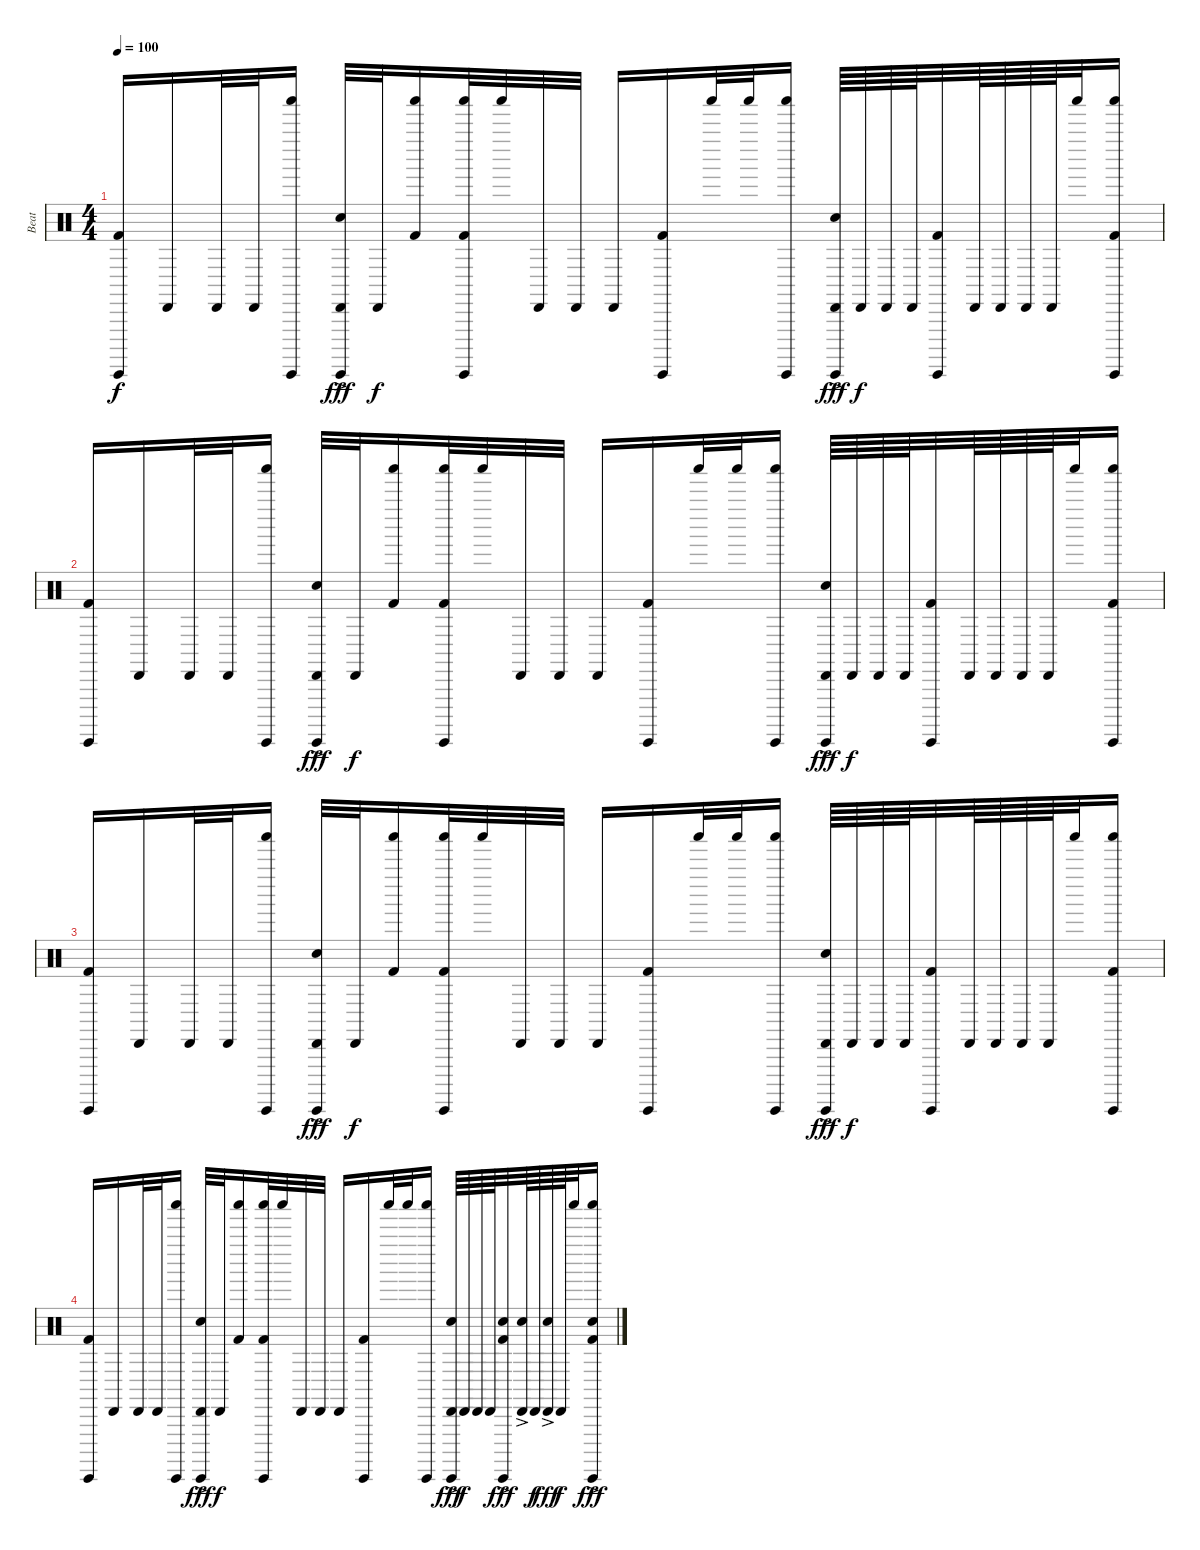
\track ("Beat" "Beat") {instrument percussion}
\staff {score}
\articulation defaults
\ts (4 4)
\tempo 100
\clef neutral
\ks c
("Guiro (hit)" "Kick (hit) 2").16{dy f} "Cabasa (hit)".16 "Cabasa (hit)".32 "Cabasa (hit)".32 ("Guiro (hit)" "Shaker (hit)").16 ("Guiro (hit)" "Cabasa (hit)" "Snare (hit) 2"{ac}).32{dy fff} "Cabasa (hit)".32{dy f} ("Shaker (hit)" "Kick (hit) 2").16 ("Guiro (hit)" "Shaker (hit)" "Kick (hit) 2").32 "Shaker (hit)".32 "Cabasa (hit)".32 "Cabasa (hit)".32 "Cabasa (hit)".16 ("Guiro (hit)" "Kick (hit) 2").16 "Shaker (hit)".32 "Shaker (hit)".32 ("Guiro (hit)" "Shaker (hit)").16 ("Guiro (hit)" "Cabasa (hit)" "Snare (hit) 2"{ac}).64{dy fff} "Cabasa (hit)".64{dy f} "Cabasa (hit)".64 "Cabasa (hit)".64 ("Guiro (hit)" "Kick (hit) 2").32 "Cabasa (hit)".64 "Cabasa (hit)".64 "Cabasa (hit)".64 "Cabasa (hit)".64 "Shaker (hit)".32 ("Guiro (hit)" "Shaker (hit)" "Kick (hit) 2").16 |
("Guiro (hit)" "Kick (hit) 2").16 "Cabasa (hit)".16 "Cabasa (hit)".32 "Cabasa (hit)".32 ("Guiro (hit)" "Shaker (hit)").16 ("Guiro (hit)" "Cabasa (hit)" "Snare (hit) 2"{ac}).32{dy fff} "Cabasa (hit)".32{dy f} ("Shaker (hit)" "Kick (hit) 2").16 ("Guiro (hit)" "Shaker (hit)" "Kick (hit) 2").32 "Shaker (hit)".32 "Cabasa (hit)".32 "Cabasa (hit)".32 "Cabasa (hit)".16 ("Guiro (hit)" "Kick (hit) 2").16 "Shaker (hit)".32 "Shaker (hit)".32 ("Guiro (hit)" "Shaker (hit)").16 ("Guiro (hit)" "Cabasa (hit)" "Snare (hit) 2"{ac}).64{dy fff} "Cabasa (hit)".64{dy f} "Cabasa (hit)".64 "Cabasa (hit)".64 ("Guiro (hit)" "Kick (hit) 2").32 "Cabasa (hit)".64 "Cabasa (hit)".64 "Cabasa (hit)".64 "Cabasa (hit)".64 "Shaker (hit)".32 ("Guiro (hit)" "Shaker (hit)" "Kick (hit) 2").16 |
("Guiro (hit)" "Kick (hit) 2").16 "Cabasa (hit)".16 "Cabasa (hit)".32 "Cabasa (hit)".32 ("Guiro (hit)" "Shaker (hit)").16 ("Guiro (hit)" "Cabasa (hit)" "Snare (hit) 2"{ac}).32{dy fff} "Cabasa (hit)".32{dy f} ("Shaker (hit)" "Kick (hit) 2").16 ("Guiro (hit)" "Shaker (hit)" "Kick (hit) 2").32 "Shaker (hit)".32 "Cabasa (hit)".32 "Cabasa (hit)".32 "Cabasa (hit)".16 ("Guiro (hit)" "Kick (hit) 2").16 "Shaker (hit)".32 "Shaker (hit)".32 ("Guiro (hit)" "Shaker (hit)").16 ("Guiro (hit)" "Cabasa (hit)" "Snare (hit) 2"{ac}).64{dy fff} "Cabasa (hit)".64{dy f} "Cabasa (hit)".64 "Cabasa (hit)".64 ("Guiro (hit)" "Kick (hit) 2").32 "Cabasa (hit)".64 "Cabasa (hit)".64 "Cabasa (hit)".64 "Cabasa (hit)".64 "Shaker (hit)".32 ("Guiro (hit)" "Shaker (hit)" "Kick (hit) 2").16 |
("Guiro (hit)" "Kick (hit) 2").16 "Cabasa (hit)".16 "Cabasa (hit)".32 "Cabasa (hit)".32 ("Guiro (hit)" "Shaker (hit)").16 ("Guiro (hit)" "Cabasa (hit)" "Snare (hit) 2"{ac}).32{dy fff} "Cabasa (hit)".32{dy f} ("Shaker (hit)" "Kick (hit) 2").16 ("Guiro (hit)" "Shaker (hit)" "Kick (hit) 2").32 "Shaker (hit)".32 "Cabasa (hit)".32 "Cabasa (hit)".32 "Cabasa (hit)".16 ("Guiro (hit)" "Kick (hit) 2").16 "Shaker (hit)".32 "Shaker (hit)".32 ("Guiro (hit)" "Shaker (hit)").16 ("Guiro (hit)" "Cabasa (hit)" "Snare (hit) 2"{ac}).64{dy fff} "Cabasa (hit)".64{dy f} "Cabasa (hit)".64 "Cabasa (hit)".64 ("Guiro (hit)" "Snare (hit) 2"{ac} "Kick (hit) 2").32{dy fff} ("Cabasa (hit)" "Snare (hit) 2"{ac}).64 "Cabasa (hit)".64{dy f} ("Cabasa (hit)" "Snare (hit) 2"{ac}).64{dy fff} "Cabasa (hit)".64{dy f} "Shaker (hit)".32 ("Guiro (hit)" "Shaker (hit)" "Snare (hit) 2"{ac} "Kick (hit) 2").16{dy fff}
